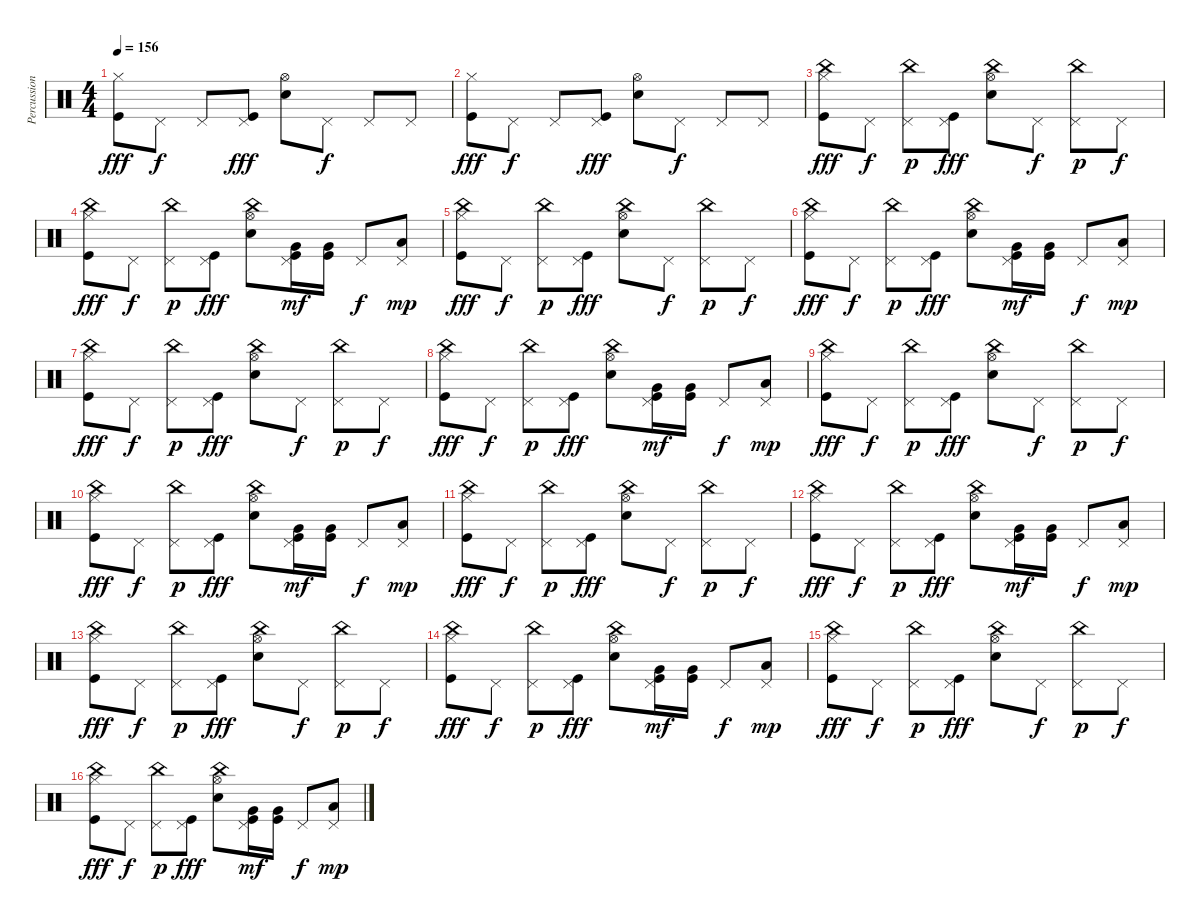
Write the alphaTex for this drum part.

\track ("Percussion" "Percussion") {instrument percussion}
\staff {score}
\articulation defaults
\ts (4 4)
\tempo 156
\clef neutral
\ks c
("Hi-Hat (closed)" "Kick (hit)").8{dy fff} "Pedal Hi-Hat (hit)".8{dy f} "Pedal Hi-Hat (hit)".8 ("Pedal Hi-Hat (hit)" "Kick (hit)").8{dy fff} ("Hi-Hat (open)" "Snare (hit) 2").8 "Pedal Hi-Hat (hit)".8{dy f} "Pedal Hi-Hat (hit)".8 "Pedal Hi-Hat (hit)".8 |
("Hi-Hat (closed)" "Kick (hit)").8{dy fff} "Pedal Hi-Hat (hit)".8{dy f} "Pedal Hi-Hat (hit)".8 ("Pedal Hi-Hat (hit)" "Kick (hit)").8{dy fff} ("Hi-Hat (open)" "Snare (hit) 2").8 "Pedal Hi-Hat (hit)".8{dy f} "Pedal Hi-Hat (hit)".8 "Pedal Hi-Hat (hit)".8 |
("China (hit)" "Hi-Hat (closed)" "Kick (hit)").8{dy fff} "Pedal Hi-Hat (hit)".8{dy f} ("China (hit)" "Pedal Hi-Hat (hit)").8{dy p} ("Pedal Hi-Hat (hit)" "Kick (hit)").8{dy fff} ("China (hit)" "Hi-Hat (open)" "Snare (hit) 2").8 "Pedal Hi-Hat (hit)".8{dy f} ("China (hit)" "Pedal Hi-Hat (hit)").8{dy p} "Pedal Hi-Hat (hit)".8{dy f} |
("China (hit)" "Hi-Hat (closed)" "Kick (hit)").8{dy fff} "Pedal Hi-Hat (hit)".8{dy f} ("China (hit)" "Pedal Hi-Hat (hit)").8{dy p} ("Pedal Hi-Hat (hit)" "Kick (hit)").8{dy fff} ("China (hit)" "Hi-Hat (open)" "Snare (hit) 2").8 ("Very Low Tom (hit)" "Pedal Hi-Hat (hit)" "Kick (hit)").16{dy mf} ("Very Low Tom (hit)" "Kick (hit)").16 "Pedal Hi-Hat (hit)".8{dy f} ("Low Tom (hit)" "Pedal Hi-Hat (hit)").8{dy mp} |
("China (hit)" "Hi-Hat (closed)" "Kick (hit)").8{dy fff} "Pedal Hi-Hat (hit)".8{dy f} ("China (hit)" "Pedal Hi-Hat (hit)").8{dy p} ("Pedal Hi-Hat (hit)" "Kick (hit)").8{dy fff} ("China (hit)" "Hi-Hat (open)" "Snare (hit) 2").8 "Pedal Hi-Hat (hit)".8{dy f} ("China (hit)" "Pedal Hi-Hat (hit)").8{dy p} "Pedal Hi-Hat (hit)".8{dy f} |
("China (hit)" "Hi-Hat (closed)" "Kick (hit)").8{dy fff} "Pedal Hi-Hat (hit)".8{dy f} ("China (hit)" "Pedal Hi-Hat (hit)").8{dy p} ("Pedal Hi-Hat (hit)" "Kick (hit)").8{dy fff} ("China (hit)" "Hi-Hat (open)" "Snare (hit) 2").8 ("Very Low Tom (hit)" "Pedal Hi-Hat (hit)" "Kick (hit)").16{dy mf} ("Very Low Tom (hit)" "Kick (hit)").16 "Pedal Hi-Hat (hit)".8{dy f} ("Low Tom (hit)" "Pedal Hi-Hat (hit)").8{dy mp} |
("China (hit)" "Hi-Hat (closed)" "Kick (hit)").8{dy fff} "Pedal Hi-Hat (hit)".8{dy f} ("China (hit)" "Pedal Hi-Hat (hit)").8{dy p} ("Pedal Hi-Hat (hit)" "Kick (hit)").8{dy fff} ("China (hit)" "Hi-Hat (open)" "Snare (hit) 2").8 "Pedal Hi-Hat (hit)".8{dy f} ("China (hit)" "Pedal Hi-Hat (hit)").8{dy p} "Pedal Hi-Hat (hit)".8{dy f} |
("China (hit)" "Hi-Hat (closed)" "Kick (hit)").8{dy fff} "Pedal Hi-Hat (hit)".8{dy f} ("China (hit)" "Pedal Hi-Hat (hit)").8{dy p} ("Pedal Hi-Hat (hit)" "Kick (hit)").8{dy fff} ("China (hit)" "Hi-Hat (open)" "Snare (hit) 2").8 ("Very Low Tom (hit)" "Pedal Hi-Hat (hit)" "Kick (hit)").16{dy mf} ("Very Low Tom (hit)" "Kick (hit)").16 "Pedal Hi-Hat (hit)".8{dy f} ("Low Tom (hit)" "Pedal Hi-Hat (hit)").8{dy mp} |
("China (hit)" "Hi-Hat (closed)" "Kick (hit)").8{dy fff} "Pedal Hi-Hat (hit)".8{dy f} ("China (hit)" "Pedal Hi-Hat (hit)").8{dy p} ("Pedal Hi-Hat (hit)" "Kick (hit)").8{dy fff} ("China (hit)" "Hi-Hat (open)" "Snare (hit) 2").8 "Pedal Hi-Hat (hit)".8{dy f} ("China (hit)" "Pedal Hi-Hat (hit)").8{dy p} "Pedal Hi-Hat (hit)".8{dy f} |
("China (hit)" "Hi-Hat (closed)" "Kick (hit)").8{dy fff} "Pedal Hi-Hat (hit)".8{dy f} ("China (hit)" "Pedal Hi-Hat (hit)").8{dy p} ("Pedal Hi-Hat (hit)" "Kick (hit)").8{dy fff} ("China (hit)" "Hi-Hat (open)" "Snare (hit) 2").8 ("Very Low Tom (hit)" "Pedal Hi-Hat (hit)" "Kick (hit)").16{dy mf} ("Very Low Tom (hit)" "Kick (hit)").16 "Pedal Hi-Hat (hit)".8{dy f} ("Low Tom (hit)" "Pedal Hi-Hat (hit)").8{dy mp} |
("China (hit)" "Hi-Hat (closed)" "Kick (hit)").8{dy fff} "Pedal Hi-Hat (hit)".8{dy f} ("China (hit)" "Pedal Hi-Hat (hit)").8{dy p} ("Pedal Hi-Hat (hit)" "Kick (hit)").8{dy fff} ("China (hit)" "Hi-Hat (open)" "Snare (hit) 2").8 "Pedal Hi-Hat (hit)".8{dy f} ("China (hit)" "Pedal Hi-Hat (hit)").8{dy p} "Pedal Hi-Hat (hit)".8{dy f} |
("China (hit)" "Hi-Hat (closed)" "Kick (hit)").8{dy fff} "Pedal Hi-Hat (hit)".8{dy f} ("China (hit)" "Pedal Hi-Hat (hit)").8{dy p} ("Pedal Hi-Hat (hit)" "Kick (hit)").8{dy fff} ("China (hit)" "Hi-Hat (open)" "Snare (hit) 2").8 ("Very Low Tom (hit)" "Pedal Hi-Hat (hit)" "Kick (hit)").16{dy mf} ("Very Low Tom (hit)" "Kick (hit)").16 "Pedal Hi-Hat (hit)".8{dy f} ("Low Tom (hit)" "Pedal Hi-Hat (hit)").8{dy mp} |
("China (hit)" "Hi-Hat (closed)" "Kick (hit)").8{dy fff} "Pedal Hi-Hat (hit)".8{dy f} ("China (hit)" "Pedal Hi-Hat (hit)").8{dy p} ("Pedal Hi-Hat (hit)" "Kick (hit)").8{dy fff} ("China (hit)" "Hi-Hat (open)" "Snare (hit) 2").8 "Pedal Hi-Hat (hit)".8{dy f} ("China (hit)" "Pedal Hi-Hat (hit)").8{dy p} "Pedal Hi-Hat (hit)".8{dy f} |
("China (hit)" "Hi-Hat (closed)" "Kick (hit)").8{dy fff} "Pedal Hi-Hat (hit)".8{dy f} ("China (hit)" "Pedal Hi-Hat (hit)").8{dy p} ("Pedal Hi-Hat (hit)" "Kick (hit)").8{dy fff} ("China (hit)" "Hi-Hat (open)" "Snare (hit) 2").8 ("Very Low Tom (hit)" "Pedal Hi-Hat (hit)" "Kick (hit)").16{dy mf} ("Very Low Tom (hit)" "Kick (hit)").16 "Pedal Hi-Hat (hit)".8{dy f} ("Low Tom (hit)" "Pedal Hi-Hat (hit)").8{dy mp} |
("China (hit)" "Hi-Hat (closed)" "Kick (hit)").8{dy fff} "Pedal Hi-Hat (hit)".8{dy f} ("China (hit)" "Pedal Hi-Hat (hit)").8{dy p} ("Pedal Hi-Hat (hit)" "Kick (hit)").8{dy fff} ("China (hit)" "Hi-Hat (open)" "Snare (hit) 2").8 "Pedal Hi-Hat (hit)".8{dy f} ("China (hit)" "Pedal Hi-Hat (hit)").8{dy p} "Pedal Hi-Hat (hit)".8{dy f} |
("China (hit)" "Hi-Hat (closed)" "Kick (hit)").8{dy fff} "Pedal Hi-Hat (hit)".8{dy f} ("China (hit)" "Pedal Hi-Hat (hit)").8{dy p} ("Pedal Hi-Hat (hit)" "Kick (hit)").8{dy fff} ("China (hit)" "Hi-Hat (open)" "Snare (hit) 2").8 ("Very Low Tom (hit)" "Pedal Hi-Hat (hit)" "Kick (hit)").16{dy mf} ("Very Low Tom (hit)" "Kick (hit)").16 "Pedal Hi-Hat (hit)".8{dy f} ("Low Tom (hit)" "Pedal Hi-Hat (hit)").8{dy mp}
